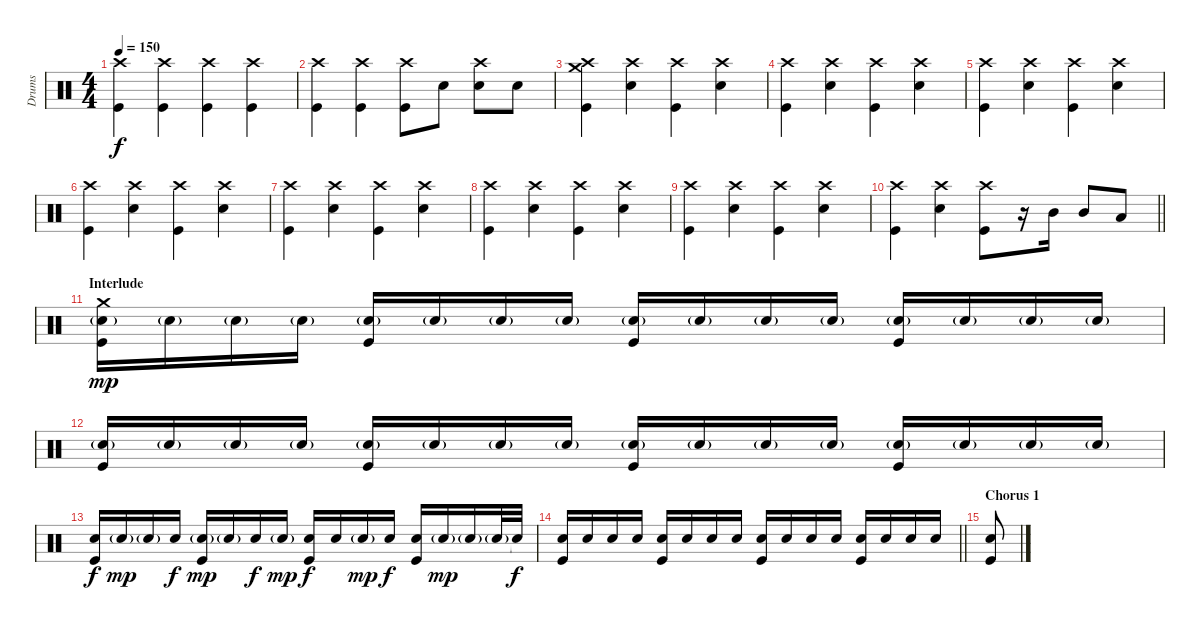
\track ("Drums" "Drums") {instrument percussion}
\staff {score}
\articulation defaults
\ts (4 4)
\tempo 150
\clef neutral
\ks c
("Crash high (hit)" "Kick (hit)").4{dy f} ("Crash high (hit)" "Kick (hit)").4 ("Crash high (hit)" "Kick (hit)").4 ("Crash high (hit)" "Kick (hit)").4 |
("Crash high (hit)" "Kick (hit)").4 ("Crash high (hit)" "Kick (hit)").4 ("Crash high (hit)" "Kick (hit)").8 "Electric Snare (hit)".8 ("Crash high (hit)" "Electric Snare (hit)").8 "Electric Snare (hit)".8 |
("Crash medium (hit)" "Crash high (hit)" "Kick (hit)").4 ("Crash high (hit)" "Electric Snare (hit)").4 ("Crash high (hit)" "Kick (hit)").4 ("Crash high (hit)" "Electric Snare (hit)").4 |
("Crash high (hit)" "Kick (hit)").4 ("Crash high (hit)" "Electric Snare (hit)").4 ("Crash high (hit)" "Kick (hit)").4 ("Crash high (hit)" "Electric Snare (hit)").4 |
("Crash high (hit)" "Kick (hit)").4 ("Crash high (hit)" "Electric Snare (hit)").4 ("Crash high (hit)" "Kick (hit)").4 ("Crash high (hit)" "Electric Snare (hit)").4 |
("Crash high (hit)" "Kick (hit)").4 ("Crash high (hit)" "Electric Snare (hit)").4 ("Crash high (hit)" "Kick (hit)").4 ("Crash high (hit)" "Electric Snare (hit)").4 |
("Crash high (hit)" "Kick (hit)").4 ("Crash high (hit)" "Electric Snare (hit)").4 ("Crash high (hit)" "Kick (hit)").4 ("Crash high (hit)" "Electric Snare (hit)").4 |
("Crash high (hit)" "Kick (hit)").4 ("Crash high (hit)" "Electric Snare (hit)").4 ("Crash high (hit)" "Kick (hit)").4 ("Crash high (hit)" "Electric Snare (hit)").4 |
("Crash high (hit)" "Kick (hit)").4 ("Crash high (hit)" "Electric Snare (hit)").4 ("Crash high (hit)" "Kick (hit)").4 ("Crash high (hit)" "Electric Snare (hit)").4 |
\barLineRight lightlight
("Crash high (hit)" "Kick (hit)").4 ("Crash high (hit)" "Electric Snare (hit)").4 ("Crash high (hit)" "Kick (hit)").8 r.16 "Mid Tom (hit)".16 "Mid Tom (hit)".8 "Low Tom (hit)".8 |
\section ("" "Interlude")
("Crash medium (hit)" "Electric Snare (hit)"{g} "Kick (hit)").16{dy mp} "Electric Snare (hit)"{g}.16 "Electric Snare (hit)"{g}.16 "Electric Snare (hit)"{g}.16 ("Electric Snare (hit)"{g} "Kick (hit)").16 "Electric Snare (hit)"{g}.16 "Electric Snare (hit)"{g}.16 "Electric Snare (hit)"{g}.16 ("Electric Snare (hit)"{g} "Kick (hit)").16 "Electric Snare (hit)"{g}.16 "Electric Snare (hit)"{g}.16 "Electric Snare (hit)"{g}.16 ("Electric Snare (hit)"{g} "Kick (hit)").16 "Electric Snare (hit)"{g}.16 "Electric Snare (hit)"{g}.16 "Electric Snare (hit)"{g}.16 |
("Electric Snare (hit)"{g} "Kick (hit)").16 "Electric Snare (hit)"{g}.16 "Electric Snare (hit)"{g}.16 "Electric Snare (hit)"{g}.16 ("Electric Snare (hit)"{g} "Kick (hit)").16 "Electric Snare (hit)"{g}.16 "Electric Snare (hit)"{g}.16 "Electric Snare (hit)"{g}.16 ("Electric Snare (hit)"{g} "Kick (hit)").16 "Electric Snare (hit)"{g}.16 "Electric Snare (hit)"{g}.16 "Electric Snare (hit)"{g}.16 ("Electric Snare (hit)"{g} "Kick (hit)").16 "Electric Snare (hit)"{g}.16 "Electric Snare (hit)"{g}.16 "Electric Snare (hit)"{g}.16 |
("Electric Snare (hit)" "Kick (hit)").16{dy f} "Electric Snare (hit)"{g}.16{dy mp} "Electric Snare (hit)"{g}.16 "Electric Snare (hit)".16{dy f} ("Electric Snare (hit)"{g} "Kick (hit)").16{dy mp} "Electric Snare (hit)"{g}.16 "Electric Snare (hit)".16{dy f} "Electric Snare (hit)"{g}.16{dy mp} ("Electric Snare (hit)" "Kick (hit)").16{dy f} "Electric Snare (hit)".16 "Electric Snare (hit)"{g}.16{dy mp} "Electric Snare (hit)".16{dy f} ("Electric Snare (hit)" "Kick (hit)").16 "Electric Snare (hit)"{g}.16{dy mp} "Electric Snare (hit)"{g}.16 "Electric Snare (hit)"{g}.32 "Snare (hit)"{t}.32{dy f volume 9} |
\barLineRight lightlight
("Electric Snare (hit)" "Kick (hit)").16{volume 16} "Electric Snare (hit)".16 "Electric Snare (hit)".16 "Electric Snare (hit)".16 ("Electric Snare (hit)" "Kick (hit)").16 "Electric Snare (hit)".16 "Electric Snare (hit)".16 "Electric Snare (hit)".16 ("Electric Snare (hit)" "Kick (hit)").16 "Electric Snare (hit)".16 "Electric Snare (hit)".16 "Electric Snare (hit)".16 ("Electric Snare (hit)" "Kick (hit)").16 "Electric Snare (hit)".16 "Electric Snare (hit)".16 "Electric Snare (hit)".16 |
\section ("" "Chorus 1")
("Electric Snare (hit)" "Kick (hit)").8
